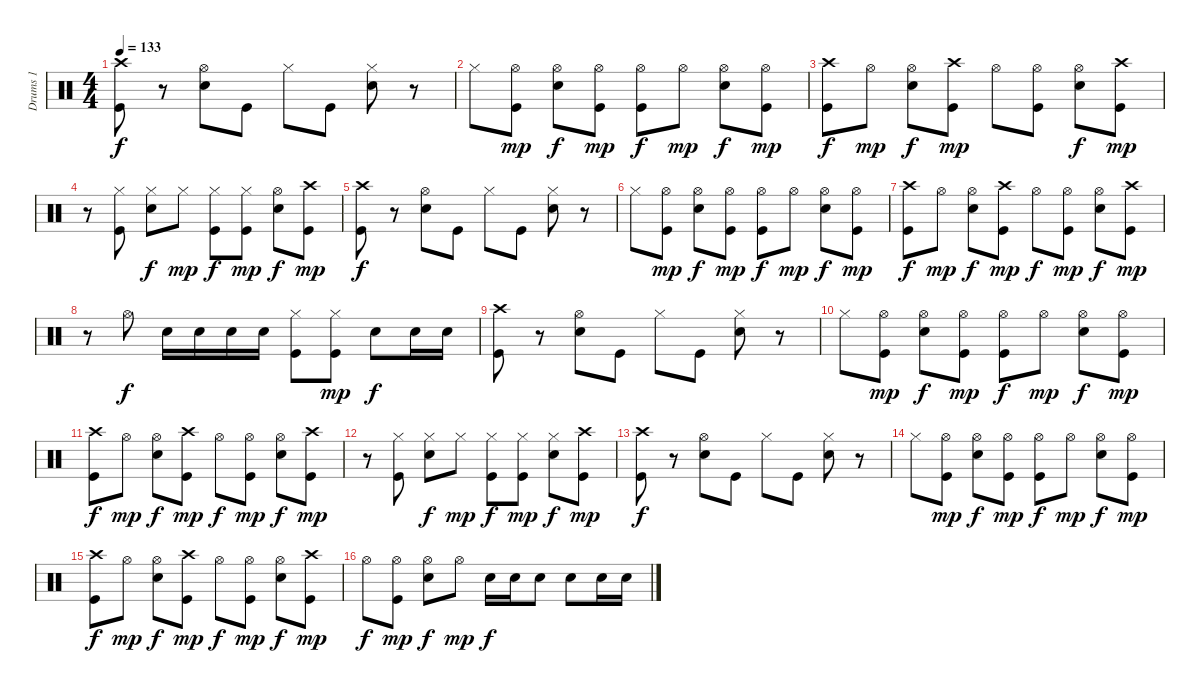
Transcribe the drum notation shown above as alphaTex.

\track ("Drums 1" "Drums 1") {instrument percussion}
\staff {score}
\articulation defaults
\ts (4 4)
\tempo 133
\clef neutral
\ks c
("Crash high (hit)" "Kick (hit)").8{dy f} r.8 ("Hi-Hat (open)" "Snare (hit) 2").8 "Kick (hit)".8 "Hi-Hat (closed)".8 "Kick (hit)".8 ("Hi-Hat (closed)" "Snare (hit) 2").8 r.8 |
"Hi-Hat (closed)".8 ("Hi-Hat (open)" "Kick (hit)").8{dy mp} ("Hi-Hat (open)" "Snare (hit) 2").8{dy f} ("Hi-Hat (open)" "Kick (hit)").8{dy mp} ("Hi-Hat (open)" "Kick (hit)").8{dy f} "Hi-Hat (open)".8{dy mp} ("Hi-Hat (open)" "Snare (hit) 2").8{dy f} ("Hi-Hat (open)" "Kick (hit)").8{dy mp} |
("Crash high (hit)" "Kick (hit)").8{dy f} "Hi-Hat (open)".8{dy mp} ("Hi-Hat (open)" "Snare (hit) 2").8{dy f} ("Crash high (hit)" "Kick (hit)").8{dy mp} "Hi-Hat (open)".8 ("Hi-Hat (open)" "Kick (hit)").8 ("Hi-Hat (open)" "Snare (hit) 2").8{dy f} ("Crash high (hit)" "Kick (hit)").8{dy mp} |
r.8 ("Hi-Hat (closed)" "Kick (hit)").8 ("Hi-Hat (closed)" "Snare (hit) 2").8{dy f} "Hi-Hat (closed)".8{dy mp} ("Hi-Hat (closed)" "Kick (hit)").8{dy f} ("Hi-Hat (closed)" "Kick (hit)").8{dy mp} ("Hi-Hat (open)" "Snare (hit) 2").8{dy f} ("Crash high (hit)" "Kick (hit)").8{dy mp} |
("Crash high (hit)" "Kick (hit)").8{dy f} r.8 ("Hi-Hat (open)" "Snare (hit) 2").8 "Kick (hit)".8 "Hi-Hat (closed)".8 "Kick (hit)".8 ("Hi-Hat (closed)" "Snare (hit) 2").8 r.8 |
"Hi-Hat (closed)".8 ("Hi-Hat (open)" "Kick (hit)").8{dy mp} ("Hi-Hat (open)" "Snare (hit) 2").8{dy f} ("Hi-Hat (open)" "Kick (hit)").8{dy mp} ("Hi-Hat (open)" "Kick (hit)").8{dy f} "Hi-Hat (open)".8{dy mp} ("Hi-Hat (open)" "Snare (hit) 2").8{dy f} ("Hi-Hat (open)" "Kick (hit)").8{dy mp} |
("Crash high (hit)" "Kick (hit)").8{dy f} "Hi-Hat (open)".8{dy mp} ("Hi-Hat (open)" "Snare (hit) 2").8{dy f} ("Crash high (hit)" "Kick (hit)").8{dy mp} "Hi-Hat (open)".8{dy f} ("Hi-Hat (open)" "Kick (hit)").8{dy mp} ("Hi-Hat (open)" "Snare (hit) 2").8{dy f} ("Crash high (hit)" "Kick (hit)").8{dy mp} |
r.8 "Hi-Hat (open)".8{dy f} "Snare (hit) 2".16 "Snare (hit) 2".16 "Snare (hit) 2".16 "Snare (hit) 2".16 ("Hi-Hat (closed)" "Kick (hit)").8 ("Hi-Hat (closed)" "Kick (hit)").8{dy mp} "Snare (hit) 2".8{dy f} "Snare (hit) 2".16 "Snare (hit) 2".16 |
("Crash high (hit)" "Kick (hit)").8 r.8 ("Hi-Hat (open)" "Snare (hit) 2").8 "Kick (hit)".8 "Hi-Hat (closed)".8 "Kick (hit)".8 ("Hi-Hat (closed)" "Snare (hit) 2").8 r.8 |
"Hi-Hat (closed)".8 ("Hi-Hat (open)" "Kick (hit)").8{dy mp} ("Hi-Hat (open)" "Snare (hit) 2").8{dy f} ("Hi-Hat (open)" "Kick (hit)").8{dy mp} ("Hi-Hat (open)" "Kick (hit)").8{dy f} "Hi-Hat (open)".8{dy mp} ("Hi-Hat (open)" "Snare (hit) 2").8{dy f} ("Hi-Hat (open)" "Kick (hit)").8{dy mp} |
("Crash high (hit)" "Kick (hit)").8{dy f} "Hi-Hat (open)".8{dy mp} ("Hi-Hat (open)" "Snare (hit) 2").8{dy f} ("Crash high (hit)" "Kick (hit)").8{dy mp} "Hi-Hat (open)".8{dy f} ("Hi-Hat (open)" "Kick (hit)").8{dy mp} ("Hi-Hat (open)" "Snare (hit) 2").8{dy f} ("Crash high (hit)" "Kick (hit)").8{dy mp} |
r.8 ("Hi-Hat (closed)" "Kick (hit)").8 ("Hi-Hat (closed)" "Snare (hit) 2").8{dy f} "Hi-Hat (closed)".8{dy mp} ("Hi-Hat (closed)" "Kick (hit)").8{dy f} ("Hi-Hat (closed)" "Kick (hit)").8{dy mp} ("Hi-Hat (closed)" "Snare (hit) 2").8{dy f} ("Crash high (hit)" "Kick (hit)").8{dy mp} |
("Crash high (hit)" "Kick (hit)").8{dy f} r.8 ("Hi-Hat (open)" "Snare (hit) 2").8 "Kick (hit)".8 "Hi-Hat (closed)".8 "Kick (hit)".8 ("Hi-Hat (closed)" "Snare (hit) 2").8 r.8 |
"Hi-Hat (closed)".8 ("Hi-Hat (open)" "Kick (hit)").8{dy mp} ("Hi-Hat (open)" "Snare (hit) 2").8{dy f} ("Hi-Hat (open)" "Kick (hit)").8{dy mp} ("Hi-Hat (open)" "Kick (hit)").8{dy f} "Hi-Hat (open)".8{dy mp} ("Hi-Hat (open)" "Snare (hit) 2").8{dy f} ("Hi-Hat (open)" "Kick (hit)").8{dy mp} |
("Crash high (hit)" "Kick (hit)").8{dy f} "Hi-Hat (open)".8{dy mp} ("Hi-Hat (open)" "Snare (hit) 2").8{dy f} ("Crash high (hit)" "Kick (hit)").8{dy mp} "Hi-Hat (open)".8{dy f} ("Hi-Hat (open)" "Kick (hit)").8{dy mp} ("Hi-Hat (open)" "Snare (hit) 2").8{dy f} ("Crash high (hit)" "Kick (hit)").8{dy mp} |
"Hi-Hat (open)".8{dy f} ("Hi-Hat (open)" "Kick (hit)").8{dy mp} ("Hi-Hat (open)" "Snare (hit) 2").8{dy f} "Hi-Hat (open)".8{dy mp} "Snare (hit) 2".16{dy f} "Snare (hit) 2".16 "Snare (hit) 2".8 "Snare (hit) 2".8 "Snare (hit) 2".16 "Snare (hit) 2".16
